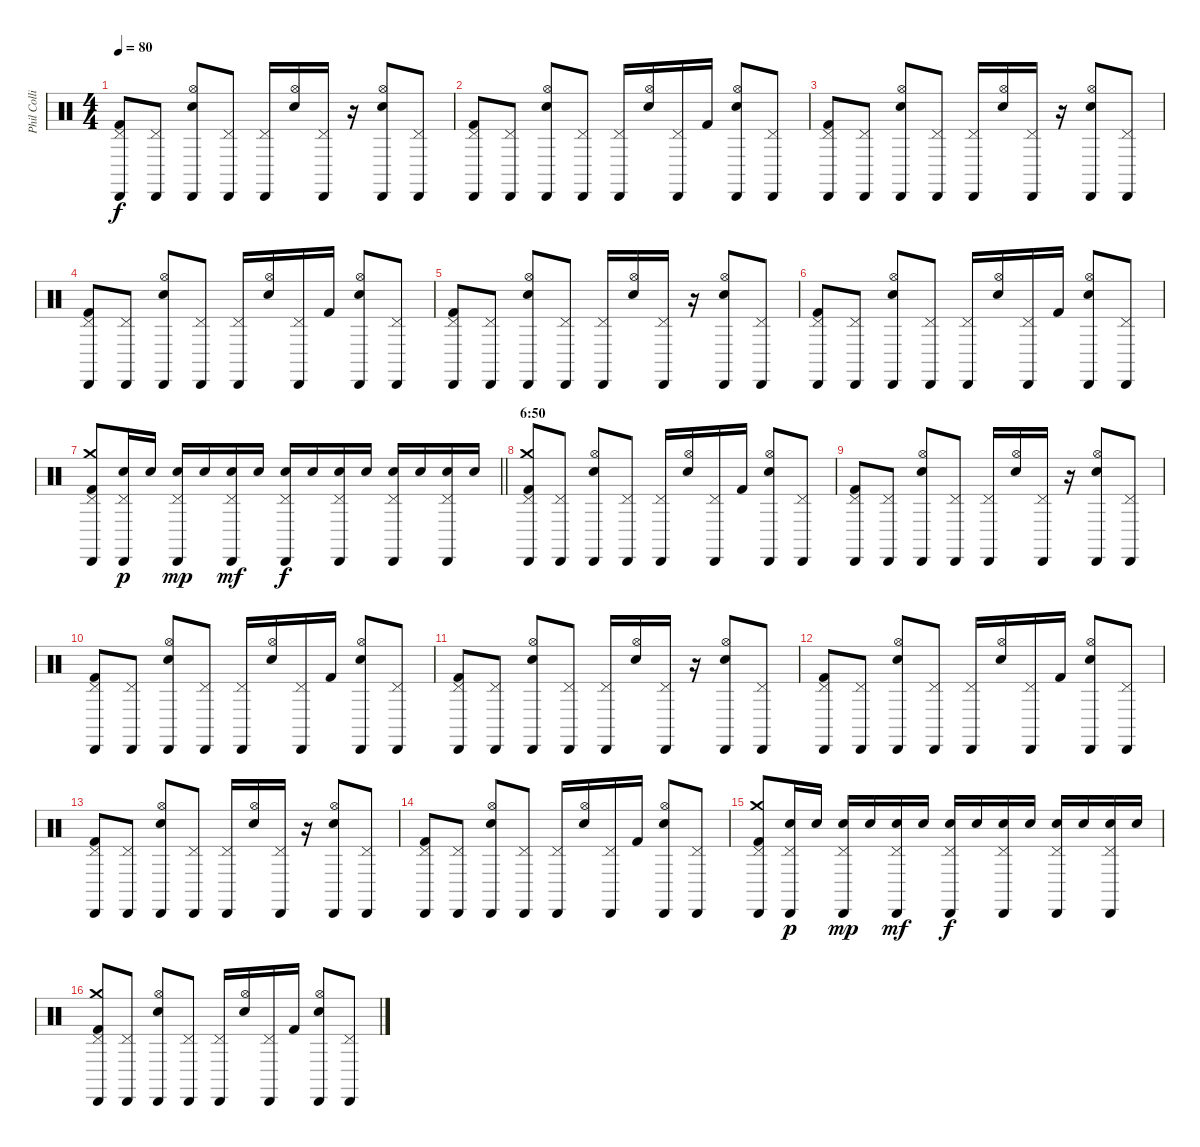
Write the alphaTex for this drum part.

\track ("Phil Collins (drums)" "Phil Colli") {instrument percussion}
\staff {score}
\articulation defaults
\ts (4 4)
\tempo 80
\clef neutral
\ks c
("Cabasa (hit)" "Pedal Hi-Hat (hit)" "Kick (hit) 2").8{dy f} ("Cabasa (hit)" "Pedal Hi-Hat (hit)").8 ("Cabasa (hit)" "Hi-Hat (open)" "Electric Snare (hit)").8 ("Cabasa (hit)" "Pedal Hi-Hat (hit)").8 ("Cabasa (hit)" "Pedal Hi-Hat (hit)").16 ("Hi-Hat (open)" "Electric Snare (hit)").16 ("Cabasa (hit)" "Pedal Hi-Hat (hit)").16 r.16 ("Cabasa (hit)" "Hi-Hat (open)" "Electric Snare (hit)").8 ("Cabasa (hit)" "Pedal Hi-Hat (hit)").8 |
("Cabasa (hit)" "Pedal Hi-Hat (hit)" "Kick (hit) 2").8 ("Cabasa (hit)" "Pedal Hi-Hat (hit)").8 ("Cabasa (hit)" "Hi-Hat (open)" "Electric Snare (hit)").8 ("Cabasa (hit)" "Pedal Hi-Hat (hit)").8 ("Cabasa (hit)" "Pedal Hi-Hat (hit)").16 ("Hi-Hat (open)" "Electric Snare (hit)").16 ("Cabasa (hit)" "Pedal Hi-Hat (hit)").16 "Kick (hit) 2".16 ("Cabasa (hit)" "Hi-Hat (open)" "Electric Snare (hit)").8 ("Cabasa (hit)" "Pedal Hi-Hat (hit)").8 |
("Cabasa (hit)" "Pedal Hi-Hat (hit)" "Kick (hit) 2").8 ("Cabasa (hit)" "Pedal Hi-Hat (hit)").8 ("Cabasa (hit)" "Hi-Hat (open)" "Electric Snare (hit)").8 ("Cabasa (hit)" "Pedal Hi-Hat (hit)").8 ("Cabasa (hit)" "Pedal Hi-Hat (hit)").16 ("Hi-Hat (open)" "Electric Snare (hit)").16 ("Cabasa (hit)" "Pedal Hi-Hat (hit)").16 r.16 ("Cabasa (hit)" "Hi-Hat (open)" "Electric Snare (hit)").8 ("Cabasa (hit)" "Pedal Hi-Hat (hit)").8 |
("Cabasa (hit)" "Pedal Hi-Hat (hit)" "Kick (hit) 2").8 ("Cabasa (hit)" "Pedal Hi-Hat (hit)").8 ("Cabasa (hit)" "Hi-Hat (open)" "Electric Snare (hit)").8 ("Cabasa (hit)" "Pedal Hi-Hat (hit)").8 ("Cabasa (hit)" "Pedal Hi-Hat (hit)").16 ("Hi-Hat (open)" "Electric Snare (hit)").16 ("Cabasa (hit)" "Pedal Hi-Hat (hit)").16 "Kick (hit) 2".16 ("Cabasa (hit)" "Hi-Hat (open)" "Electric Snare (hit)").8 ("Cabasa (hit)" "Pedal Hi-Hat (hit)").8 |
("Cabasa (hit)" "Pedal Hi-Hat (hit)" "Kick (hit) 2").8 ("Cabasa (hit)" "Pedal Hi-Hat (hit)").8 ("Cabasa (hit)" "Hi-Hat (open)" "Electric Snare (hit)").8 ("Cabasa (hit)" "Pedal Hi-Hat (hit)").8 ("Cabasa (hit)" "Pedal Hi-Hat (hit)").16 ("Hi-Hat (open)" "Electric Snare (hit)").16 ("Cabasa (hit)" "Pedal Hi-Hat (hit)").16 r.16 ("Cabasa (hit)" "Hi-Hat (open)" "Electric Snare (hit)").8 ("Cabasa (hit)" "Pedal Hi-Hat (hit)").8 |
("Cabasa (hit)" "Pedal Hi-Hat (hit)" "Kick (hit) 2").8 ("Cabasa (hit)" "Pedal Hi-Hat (hit)").8 ("Cabasa (hit)" "Hi-Hat (open)" "Electric Snare (hit)").8 ("Cabasa (hit)" "Pedal Hi-Hat (hit)").8 ("Cabasa (hit)" "Pedal Hi-Hat (hit)").16 ("Hi-Hat (open)" "Electric Snare (hit)").16 ("Cabasa (hit)" "Pedal Hi-Hat (hit)").16 "Kick (hit) 2".16 ("Cabasa (hit)" "Hi-Hat (open)" "Electric Snare (hit)").8 ("Cabasa (hit)" "Pedal Hi-Hat (hit)").8 |
\barLineRight lightlight
("Crash medium (hit)" "Cabasa (hit)" "Pedal Hi-Hat (hit)" "Kick (hit) 2").8 ("Cabasa (hit)" "Pedal Hi-Hat (hit)" "Electric Snare (hit)").16{dy p} "Electric Snare (hit)".16 ("Cabasa (hit)" "Pedal Hi-Hat (hit)" "Electric Snare (hit)").16{dy mp} "Electric Snare (hit)".16 ("Cabasa (hit)" "Pedal Hi-Hat (hit)" "Electric Snare (hit)").16{dy mf} "Electric Snare (hit)".16 ("Cabasa (hit)" "Pedal Hi-Hat (hit)" "Electric Snare (hit)").16{dy f} "Electric Snare (hit)".16 ("Cabasa (hit)" "Pedal Hi-Hat (hit)" "Electric Snare (hit)").16 "Electric Snare (hit)".16 ("Cabasa (hit)" "Pedal Hi-Hat (hit)" "Electric Snare (hit)").16 "Electric Snare (hit)".16 ("Cabasa (hit)" "Pedal Hi-Hat (hit)" "Electric Snare (hit)").16 "Electric Snare (hit)".16 |
\section ("" "6:50")
("Crash medium (hit)" "Cabasa (hit)" "Pedal Hi-Hat (hit)" "Kick (hit) 2").8 ("Cabasa (hit)" "Pedal Hi-Hat (hit)").8 ("Cabasa (hit)" "Hi-Hat (open)" "Electric Snare (hit)").8 ("Cabasa (hit)" "Pedal Hi-Hat (hit)").8 ("Cabasa (hit)" "Pedal Hi-Hat (hit)").16 ("Hi-Hat (open)" "Electric Snare (hit)").16 ("Cabasa (hit)" "Pedal Hi-Hat (hit)").16 "Kick (hit) 2".16 ("Cabasa (hit)" "Hi-Hat (open)" "Electric Snare (hit)").8 ("Cabasa (hit)" "Pedal Hi-Hat (hit)").8 |
("Cabasa (hit)" "Pedal Hi-Hat (hit)" "Kick (hit) 2").8 ("Cabasa (hit)" "Pedal Hi-Hat (hit)").8 ("Cabasa (hit)" "Hi-Hat (open)" "Electric Snare (hit)").8 ("Cabasa (hit)" "Pedal Hi-Hat (hit)").8 ("Cabasa (hit)" "Pedal Hi-Hat (hit)").16 ("Hi-Hat (open)" "Electric Snare (hit)").16 ("Cabasa (hit)" "Pedal Hi-Hat (hit)").16 r.16 ("Cabasa (hit)" "Hi-Hat (open)" "Electric Snare (hit)").8 ("Cabasa (hit)" "Pedal Hi-Hat (hit)").8 |
("Cabasa (hit)" "Pedal Hi-Hat (hit)" "Kick (hit) 2").8 ("Cabasa (hit)" "Pedal Hi-Hat (hit)").8 ("Cabasa (hit)" "Hi-Hat (open)" "Electric Snare (hit)").8 ("Cabasa (hit)" "Pedal Hi-Hat (hit)").8 ("Cabasa (hit)" "Pedal Hi-Hat (hit)").16 ("Hi-Hat (open)" "Electric Snare (hit)").16 ("Cabasa (hit)" "Pedal Hi-Hat (hit)").16 "Kick (hit) 2".16 ("Cabasa (hit)" "Hi-Hat (open)" "Electric Snare (hit)").8 ("Cabasa (hit)" "Pedal Hi-Hat (hit)").8 |
("Cabasa (hit)" "Pedal Hi-Hat (hit)" "Kick (hit) 2").8 ("Cabasa (hit)" "Pedal Hi-Hat (hit)").8 ("Cabasa (hit)" "Hi-Hat (open)" "Electric Snare (hit)").8 ("Cabasa (hit)" "Pedal Hi-Hat (hit)").8 ("Cabasa (hit)" "Pedal Hi-Hat (hit)").16 ("Hi-Hat (open)" "Electric Snare (hit)").16 ("Cabasa (hit)" "Pedal Hi-Hat (hit)").16 r.16 ("Cabasa (hit)" "Hi-Hat (open)" "Electric Snare (hit)").8 ("Cabasa (hit)" "Pedal Hi-Hat (hit)").8 |
("Cabasa (hit)" "Pedal Hi-Hat (hit)" "Kick (hit) 2").8 ("Cabasa (hit)" "Pedal Hi-Hat (hit)").8 ("Cabasa (hit)" "Hi-Hat (open)" "Electric Snare (hit)").8 ("Cabasa (hit)" "Pedal Hi-Hat (hit)").8 ("Cabasa (hit)" "Pedal Hi-Hat (hit)").16 ("Hi-Hat (open)" "Electric Snare (hit)").16 ("Cabasa (hit)" "Pedal Hi-Hat (hit)").16 "Kick (hit) 2".16 ("Cabasa (hit)" "Hi-Hat (open)" "Electric Snare (hit)").8 ("Cabasa (hit)" "Pedal Hi-Hat (hit)").8 |
("Cabasa (hit)" "Pedal Hi-Hat (hit)" "Kick (hit) 2").8 ("Cabasa (hit)" "Pedal Hi-Hat (hit)").8 ("Cabasa (hit)" "Hi-Hat (open)" "Electric Snare (hit)").8 ("Cabasa (hit)" "Pedal Hi-Hat (hit)").8 ("Cabasa (hit)" "Pedal Hi-Hat (hit)").16 ("Hi-Hat (open)" "Electric Snare (hit)").16 ("Cabasa (hit)" "Pedal Hi-Hat (hit)").16 r.16 ("Cabasa (hit)" "Hi-Hat (open)" "Electric Snare (hit)").8 ("Cabasa (hit)" "Pedal Hi-Hat (hit)").8 |
("Cabasa (hit)" "Pedal Hi-Hat (hit)" "Kick (hit) 2").8 ("Cabasa (hit)" "Pedal Hi-Hat (hit)").8 ("Cabasa (hit)" "Hi-Hat (open)" "Electric Snare (hit)").8 ("Cabasa (hit)" "Pedal Hi-Hat (hit)").8 ("Cabasa (hit)" "Pedal Hi-Hat (hit)").16 ("Hi-Hat (open)" "Electric Snare (hit)").16 ("Cabasa (hit)" "Pedal Hi-Hat (hit)").16 "Kick (hit) 2".16 ("Cabasa (hit)" "Hi-Hat (open)" "Electric Snare (hit)").8 ("Cabasa (hit)" "Pedal Hi-Hat (hit)").8 |
("Crash medium (hit)" "Cabasa (hit)" "Pedal Hi-Hat (hit)" "Kick (hit) 2").8 ("Cabasa (hit)" "Pedal Hi-Hat (hit)" "Electric Snare (hit)").16{dy p} "Electric Snare (hit)".16 ("Cabasa (hit)" "Pedal Hi-Hat (hit)" "Electric Snare (hit)").16{dy mp} "Electric Snare (hit)".16 ("Cabasa (hit)" "Pedal Hi-Hat (hit)" "Electric Snare (hit)").16{dy mf} "Electric Snare (hit)".16 ("Cabasa (hit)" "Pedal Hi-Hat (hit)" "Electric Snare (hit)").16{dy f} "Electric Snare (hit)".16 ("Cabasa (hit)" "Pedal Hi-Hat (hit)" "Electric Snare (hit)").16 "Electric Snare (hit)".16 ("Cabasa (hit)" "Pedal Hi-Hat (hit)" "Electric Snare (hit)").16 "Electric Snare (hit)".16 ("Cabasa (hit)" "Pedal Hi-Hat (hit)" "Electric Snare (hit)").16 "Electric Snare (hit)".16 |
("Crash medium (hit)" "Cabasa (hit)" "Pedal Hi-Hat (hit)" "Kick (hit) 2").8 ("Cabasa (hit)" "Pedal Hi-Hat (hit)").8 ("Cabasa (hit)" "Hi-Hat (open)" "Electric Snare (hit)").8 ("Cabasa (hit)" "Pedal Hi-Hat (hit)").8 ("Cabasa (hit)" "Pedal Hi-Hat (hit)").16 ("Hi-Hat (open)" "Electric Snare (hit)").16 ("Cabasa (hit)" "Pedal Hi-Hat (hit)").16 "Kick (hit) 2".16 ("Cabasa (hit)" "Hi-Hat (open)" "Electric Snare (hit)").8 ("Cabasa (hit)" "Pedal Hi-Hat (hit)").8
